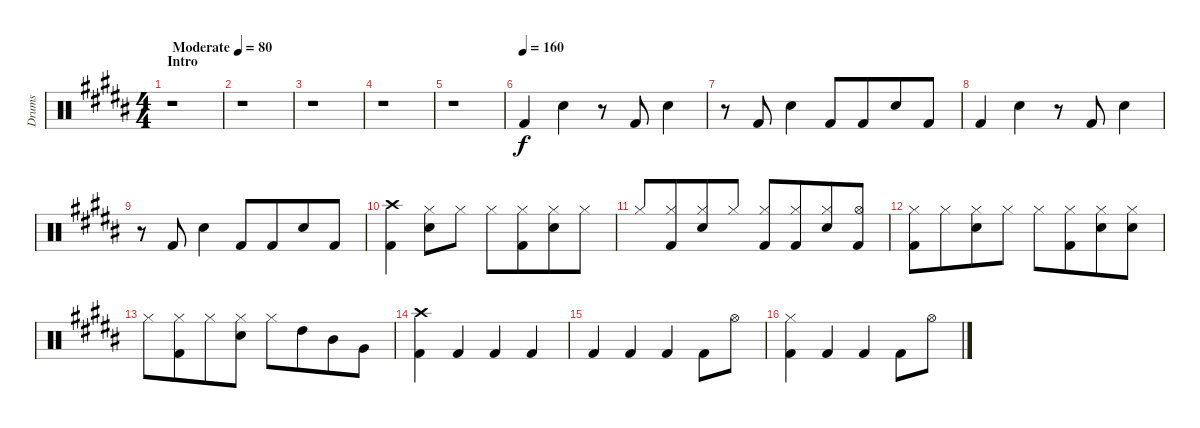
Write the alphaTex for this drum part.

\track ("Drums" "Drums") {instrument percussion}
\staff {score}
\articulation defaults
\ts (4 4)
\section ("" "Intro")
\tempo (80 "Moderate")
\clef neutral
\ks b
r.1{dy f} |
r.1 |
r.1 |
r.1 |
r.1 |
\tempo (160)
"Kick (hit) 2".4 "Snare (hit) 2".4 r.8 "Kick (hit) 2".8 "Snare (hit) 2".4 |
r.8 "Kick (hit) 2".8 "Snare (hit) 2".4 "Kick (hit) 2".8{beam Up} "Kick (hit) 2".8{beam Up beam merge} "Snare (hit) 2".8{beam Up} "Kick (hit) 2".8{beam Up} |
"Kick (hit) 2".4 "Snare (hit) 2".4 r.8 "Kick (hit) 2".8 "Snare (hit) 2".4 |
r.8 "Kick (hit) 2".8 "Snare (hit) 2".4 "Kick (hit) 2".8{beam Up} "Kick (hit) 2".8{beam Up beam merge} "Snare (hit) 2".8{beam Up} "Kick (hit) 2".8{beam Up} |
("Kick (hit) 2" "Crash high (hit)").4 ("Hi-Hat (closed)" "Snare (hit) 2").8 "Hi-Hat (closed)".8 "Hi-Hat (closed)".8 ("Hi-Hat (closed)" "Kick (hit) 2").8{beam merge} ("Hi-Hat (closed)" "Snare (hit) 2").8 "Hi-Hat (closed)".8 |
"Hi-Hat (closed)".8 ("Hi-Hat (closed)" "Kick (hit) 2").8{beam merge} ("Hi-Hat (closed)" "Snare (hit) 2").8 "Hi-Hat (closed)".8{beam Up} ("Hi-Hat (closed)" "Kick (hit) 2").8{beam Up beam merge} ("Hi-Hat (closed)" "Kick (hit) 2").8{beam Up beam merge} ("Hi-Hat (closed)" "Snare (hit) 2").8{beam Up} ("Hi-Hat (open)" "Kick (hit) 2").8 |
("Hi-Hat (closed)" "Kick (hit) 2").8 "Hi-Hat (closed)".8{beam merge} ("Hi-Hat (closed)" "Snare (hit) 2").8 "Hi-Hat (closed)".8 "Hi-Hat (closed)".8 ("Hi-Hat (closed)" "Kick (hit) 2").8{beam merge} ("Hi-Hat (closed)" "Snare (hit) 2").8 ("Hi-Hat (closed)" "Snare (hit) 2").8 |
"Hi-Hat (closed)".8 ("Hi-Hat (closed)" "Kick (hit) 2").8{beam merge} "Hi-Hat (closed)".8 ("Hi-Hat (closed)" "Snare (hit) 2").8 "Hi-Hat (closed)".8 "High Tom (hit)".8{beam merge} "Mid Tom (hit)".8 "Very Low Tom (hit)".8 |
("Kick (hit) 2" "Crash high (hit)").4 "Kick (hit) 2".4 "Kick (hit) 2".4 "Kick (hit) 2".4 |
"Kick (hit) 2".4 "Kick (hit) 2".4 "Kick (hit) 2".4 "Kick (hit) 2".8 "Hi-Hat (open)".8 |
("Hi-Hat (closed)" "Kick (hit) 2").4 "Kick (hit) 2".4 "Kick (hit) 2".4 "Kick (hit) 2".8 "Hi-Hat (open)".8
